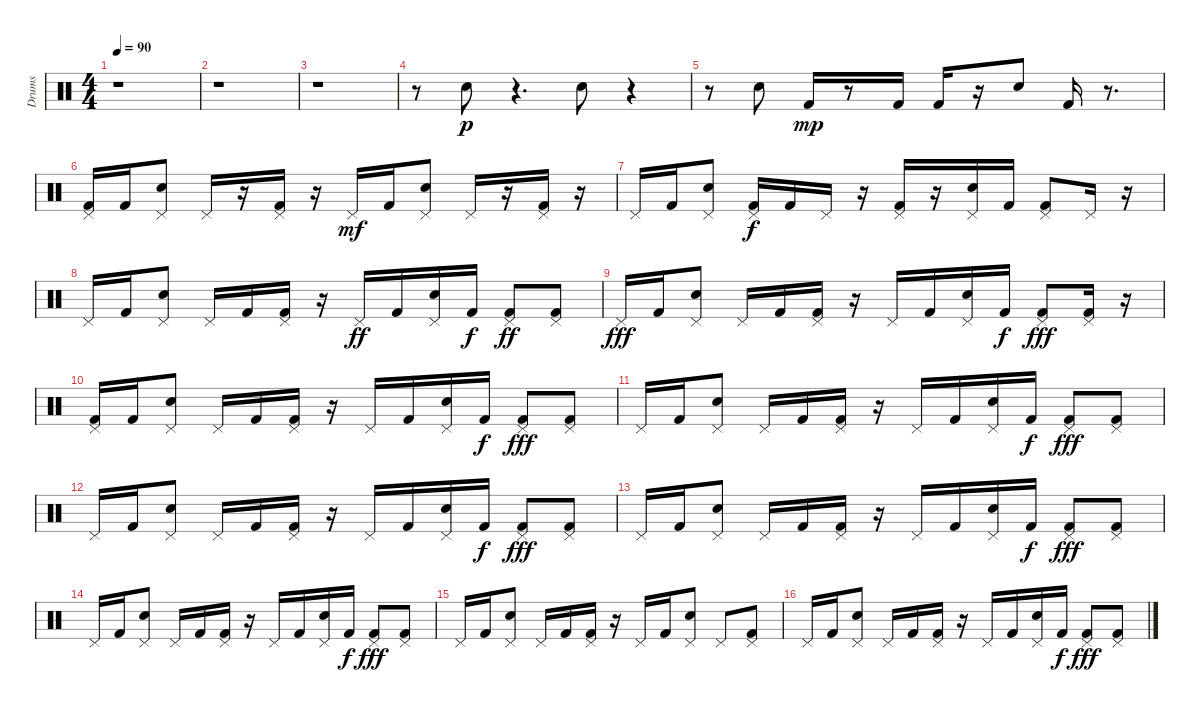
\track ("Drums" "Drums") {instrument percussion}
\staff {score}
\articulation defaults
\ts (4 4)
\tempo 90
\clef neutral
\ks c
r.1{dy p} |
r.1 |
r.1 |
r.8 "Electric Snare (hit)".8{volume 16 balance 10} r.4{d} "Electric Snare (hit)".8 r.4 |
r.8 "Electric Snare (hit)".8 "Kick (hit) 2".16{dy mp} r.8 "Kick (hit) 2".16 "Kick (hit) 2".16 r.16 "Electric Snare (hit)".8 "Kick (hit) 2".16 r.8{d} |
("Kick (hit) 2" "Pedal Hi-Hat (hit)").16 "Kick (hit) 2".16 ("Pedal Hi-Hat (hit)" "Electric Snare (hit)").8 "Pedal Hi-Hat (hit)".16 r.16 ("Kick (hit) 2" "Pedal Hi-Hat (hit)").16 r.16 "Pedal Hi-Hat (hit)".16{dy mf} "Kick (hit) 2".16 ("Pedal Hi-Hat (hit)" "Electric Snare (hit)").8 "Pedal Hi-Hat (hit)".16 r.16 ("Kick (hit) 2" "Pedal Hi-Hat (hit)").16 r.16 |
"Pedal Hi-Hat (hit)".16 "Kick (hit) 2".16 ("Electric Snare (hit)" "Pedal Hi-Hat (hit)").8 ("Pedal Hi-Hat (hit)" "Kick (hit) 2").16{dy f} "Kick (hit) 2".16 "Pedal Hi-Hat (hit)".16 r.16 ("Pedal Hi-Hat (hit)" "Kick (hit) 2").16 r.16 ("Pedal Hi-Hat (hit)" "Electric Snare (hit)").16 "Kick (hit) 2".16 ("Pedal Hi-Hat (hit)" "Kick (hit) 2").8 "Pedal Hi-Hat (hit)".16 r.16 |
"Pedal Hi-Hat (hit)".16 "Kick (hit) 2".16 ("Electric Snare (hit)" "Pedal Hi-Hat (hit)").8 "Pedal Hi-Hat (hit)".16 "Kick (hit) 2".16 ("Kick (hit) 2" "Pedal Hi-Hat (hit)").16 r.16 "Pedal Hi-Hat (hit)".16{dy ff} "Kick (hit) 2".16 ("Pedal Hi-Hat (hit)" "Electric Snare (hit)").16 "Kick (hit) 2".16{dy f} ("Kick (hit) 2" "Pedal Hi-Hat (hit)").8{dy ff} ("Kick (hit) 2" "Pedal Hi-Hat (hit)").8 |
"Pedal Hi-Hat (hit)".16{dy fff} "Kick (hit) 2".16 ("Electric Snare (hit)" "Pedal Hi-Hat (hit)").8 "Pedal Hi-Hat (hit)".16 "Kick (hit) 2".16 ("Kick (hit) 2" "Pedal Hi-Hat (hit)").16 r.16 "Pedal Hi-Hat (hit)".16 "Kick (hit) 2".16 ("Pedal Hi-Hat (hit)" "Electric Snare (hit)").16 "Kick (hit) 2".16{dy f} ("Kick (hit) 2" "Pedal Hi-Hat (hit)").8{dy fff} ("Kick (hit) 2" "Pedal Hi-Hat (hit)").16 r.16 |
("Kick (hit) 2" "Pedal Hi-Hat (hit)").16 "Kick (hit) 2".16 ("Electric Snare (hit)" "Pedal Hi-Hat (hit)").8 "Pedal Hi-Hat (hit)".16 "Kick (hit) 2".16 ("Pedal Hi-Hat (hit)" "Kick (hit) 2").16 r.16 "Pedal Hi-Hat (hit)".16 "Kick (hit) 2".16 ("Pedal Hi-Hat (hit)" "Electric Snare (hit)").16 "Kick (hit) 2".16{dy f} ("Kick (hit) 2" "Pedal Hi-Hat (hit)").8{dy fff} ("Kick (hit) 2" "Pedal Hi-Hat (hit)").8 |
"Pedal Hi-Hat (hit)".16 "Kick (hit) 2".16 ("Electric Snare (hit)" "Pedal Hi-Hat (hit)").8 "Pedal Hi-Hat (hit)".16 "Kick (hit) 2".16 ("Kick (hit) 2" "Pedal Hi-Hat (hit)").16 r.16 "Pedal Hi-Hat (hit)".16 "Kick (hit) 2".16 ("Pedal Hi-Hat (hit)" "Electric Snare (hit)").16 "Kick (hit) 2".16{dy f} ("Kick (hit) 2" "Pedal Hi-Hat (hit)").8{dy fff} ("Kick (hit) 2" "Pedal Hi-Hat (hit)").8 |
"Pedal Hi-Hat (hit)".16 "Kick (hit) 2".16 ("Electric Snare (hit)" "Pedal Hi-Hat (hit)").8 "Pedal Hi-Hat (hit)".16 "Kick (hit) 2".16 ("Kick (hit) 2" "Pedal Hi-Hat (hit)").16 r.16 "Pedal Hi-Hat (hit)".16 "Kick (hit) 2".16 ("Pedal Hi-Hat (hit)" "Electric Snare (hit)").16 "Kick (hit) 2".16{dy f} ("Kick (hit) 2" "Pedal Hi-Hat (hit)").8{dy fff} ("Kick (hit) 2" "Pedal Hi-Hat (hit)").8 |
"Pedal Hi-Hat (hit)".16 "Kick (hit) 2".16 ("Electric Snare (hit)" "Pedal Hi-Hat (hit)").8 "Pedal Hi-Hat (hit)".16 "Kick (hit) 2".16 ("Kick (hit) 2" "Pedal Hi-Hat (hit)").16 r.16 "Pedal Hi-Hat (hit)".16 "Kick (hit) 2".16 ("Pedal Hi-Hat (hit)" "Electric Snare (hit)").16 "Kick (hit) 2".16{dy f} ("Kick (hit) 2" "Pedal Hi-Hat (hit)").8{dy fff} ("Kick (hit) 2" "Pedal Hi-Hat (hit)").8 |
"Pedal Hi-Hat (hit)".16 "Kick (hit) 2".16 ("Electric Snare (hit)" "Pedal Hi-Hat (hit)").8 "Pedal Hi-Hat (hit)".16 "Kick (hit) 2".16 ("Kick (hit) 2" "Pedal Hi-Hat (hit)").16 r.16 "Pedal Hi-Hat (hit)".16 "Kick (hit) 2".16 ("Pedal Hi-Hat (hit)" "Electric Snare (hit)").16 "Kick (hit) 2".16{dy f} ("Kick (hit) 2" "Pedal Hi-Hat (hit)").8{dy fff} ("Kick (hit) 2" "Pedal Hi-Hat (hit)").8 |
"Pedal Hi-Hat (hit)".16 "Kick (hit) 2".16 ("Electric Snare (hit)" "Pedal Hi-Hat (hit)").8 "Pedal Hi-Hat (hit)".16 "Kick (hit) 2".16 ("Kick (hit) 2" "Pedal Hi-Hat (hit)").16 r.16 "Pedal Hi-Hat (hit)".16 "Kick (hit) 2".16 ("Pedal Hi-Hat (hit)" "Electric Snare (hit)").8 "Pedal Hi-Hat (hit)".8 ("Kick (hit) 2" "Pedal Hi-Hat (hit)").8 |
"Pedal Hi-Hat (hit)".16 "Kick (hit) 2".16 ("Electric Snare (hit)" "Pedal Hi-Hat (hit)").8 "Pedal Hi-Hat (hit)".16 "Kick (hit) 2".16 ("Kick (hit) 2" "Pedal Hi-Hat (hit)").16 r.16 "Pedal Hi-Hat (hit)".16 "Kick (hit) 2".16 ("Pedal Hi-Hat (hit)" "Electric Snare (hit)").16 "Kick (hit) 2".16{dy f} ("Kick (hit) 2" "Pedal Hi-Hat (hit)").8{dy fff} ("Kick (hit) 2" "Pedal Hi-Hat (hit)").8
